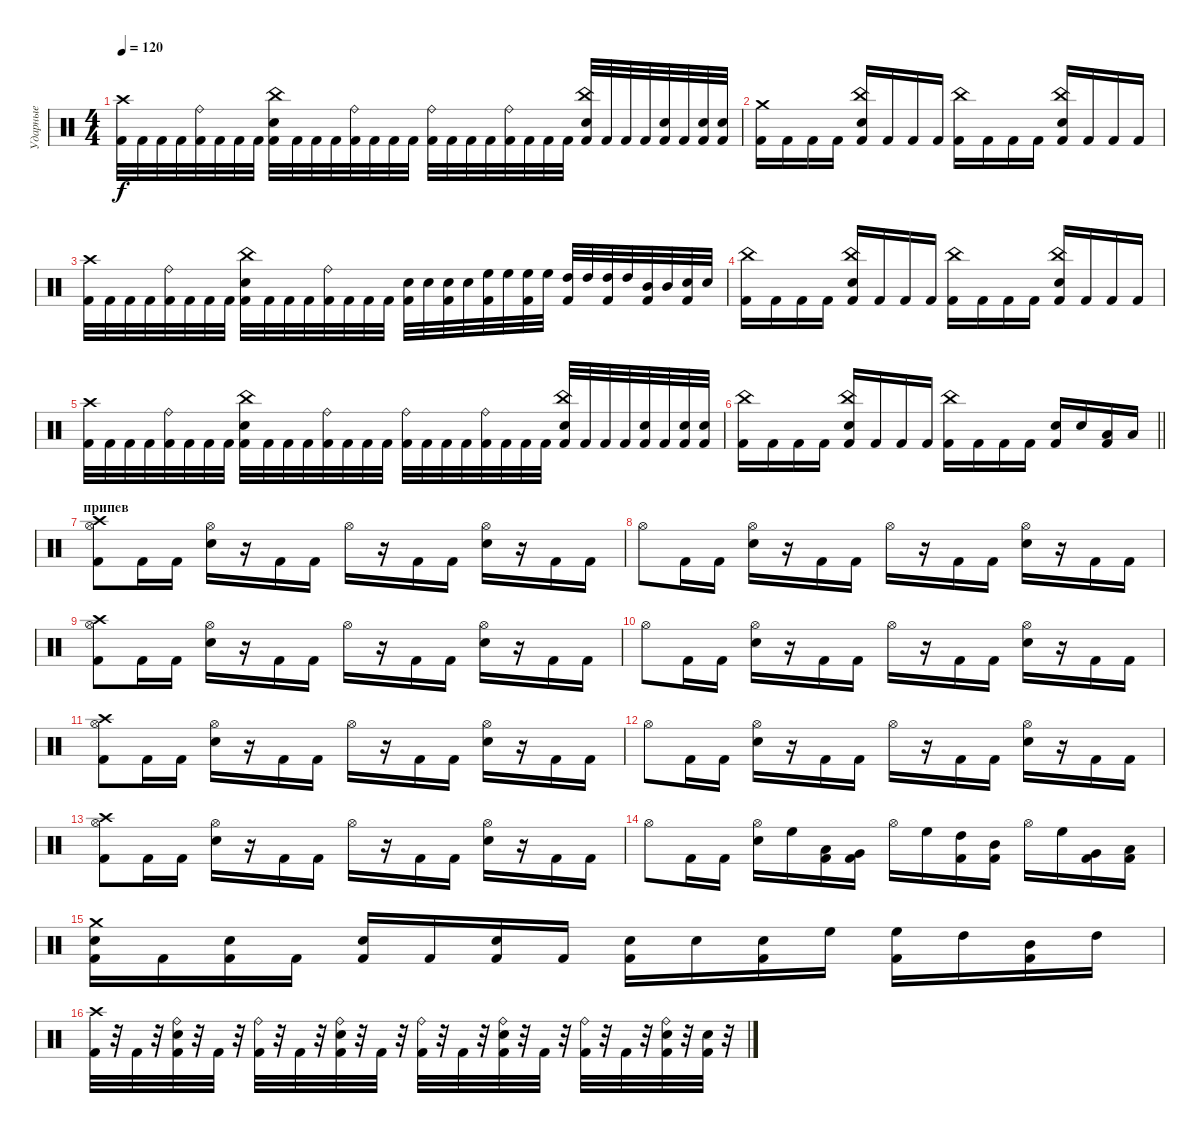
\track ("Ударные" "Ударные") {instrument percussion}
\staff {score}
\articulation defaults
\ts (4 4)
\tempo 120
\clef neutral
\ks c
("Crash high (hit)" "Kick (hit) 2").32{dy f} "Kick (hit) 2".32 "Kick (hit) 2".32 "Kick (hit) 2".32 ("Ride (bell)" "Kick (hit) 2").32 "Kick (hit) 2".32 "Kick (hit) 2".32 "Kick (hit) 2".32 ("China (hit)" "Snare (hit) 2" "Kick (hit) 2").32 "Kick (hit) 2".32 "Kick (hit) 2".32 "Kick (hit) 2".32 ("Ride (bell)" "Kick (hit) 2").32 "Kick (hit) 2".32 "Kick (hit) 2".32 "Kick (hit) 2".32 ("Ride (bell)" "Kick (hit) 2").32 "Kick (hit) 2".32 "Kick (hit) 2".32 "Kick (hit) 2".32 ("Ride (bell)" "Kick (hit) 2").32 "Kick (hit) 2".32 "Kick (hit) 2".32 "Kick (hit) 2".32 ("China (hit)" "Snare (hit) 2" "Kick (hit) 2").32 "Kick (hit) 2".32 "Kick (hit) 2".32 "Kick (hit) 2".32 ("Snare (hit) 2" "Kick (hit) 2").32 "Kick (hit) 2".32 ("Snare (hit) 2" "Kick (hit) 2").32 ("Snare (hit) 2" "Kick (hit) 2").32 |
("Crash medium (hit)" "Kick (hit) 2").16 "Kick (hit) 2".16 "Kick (hit) 2".16 "Kick (hit) 2".16 ("China (hit)" "Snare (hit) 2" "Kick (hit) 2").16 "Kick (hit) 2".16 "Kick (hit) 2".16 "Kick (hit) 2".16 ("China (hit)" "Kick (hit) 2").16 "Kick (hit) 2".16 "Kick (hit) 2".16 "Kick (hit) 2".16 ("China (hit)" "Snare (hit) 2" "Kick (hit) 2").16 "Kick (hit) 2".16 "Kick (hit) 2".16 "Kick (hit) 2".16 |
("Crash high (hit)" "Kick (hit) 2").32 "Kick (hit) 2".32 "Kick (hit) 2".32 "Kick (hit) 2".32 ("Ride (bell)" "Kick (hit) 2").32 "Kick (hit) 2".32 "Kick (hit) 2".32 "Kick (hit) 2".32 ("China (hit)" "Snare (hit) 2" "Kick (hit) 2").32 "Kick (hit) 2".32 "Kick (hit) 2".32 "Kick (hit) 2".32 ("Ride (bell)" "Kick (hit) 2").32 "Kick (hit) 2".32 "Kick (hit) 2".32 "Kick (hit) 2".32 ("Snare (hit) 2" "Kick (hit) 2").32 "Snare (hit) 2".32 ("Snare (hit) 2" "Kick (hit) 2").32 "Snare (hit) 2".32 ("High Floor Tom (hit)" "Kick (hit) 2").32 "High Floor Tom (hit)".32 ("High Floor Tom (hit)" "Kick (hit) 2").32 "High Floor Tom (hit)".32 ("High Tom (hit)" "Kick (hit) 2").32 "High Tom (hit)".32 ("High Tom (hit)" "Kick (hit) 2").32 "High Tom (hit)".32 ("Mid Tom (hit)" "Kick (hit) 2").32 "Mid Tom (hit)".32 ("Snare (hit) 2" "Kick (hit) 2").32 "Snare (hit) 2".32 |
("China (hit)" "Kick (hit) 2").16 "Kick (hit) 2".16 "Kick (hit) 2".16 "Kick (hit) 2".16 ("China (hit)" "Snare (hit) 2" "Kick (hit) 2").16 "Kick (hit) 2".16 "Kick (hit) 2".16 "Kick (hit) 2".16 ("China (hit)" "Kick (hit) 2").16 "Kick (hit) 2".16 "Kick (hit) 2".16 "Kick (hit) 2".16 ("China (hit)" "Snare (hit) 2" "Kick (hit) 2").16 "Kick (hit) 2".16 "Kick (hit) 2".16 "Kick (hit) 2".16 |
("Crash high (hit)" "Kick (hit) 2").32 "Kick (hit) 2".32 "Kick (hit) 2".32 "Kick (hit) 2".32 ("Ride (bell)" "Kick (hit) 2").32 "Kick (hit) 2".32 "Kick (hit) 2".32 "Kick (hit) 2".32 ("China (hit)" "Snare (hit) 2" "Kick (hit) 2").32 "Kick (hit) 2".32 "Kick (hit) 2".32 "Kick (hit) 2".32 ("Ride (bell)" "Kick (hit) 2").32 "Kick (hit) 2".32 "Kick (hit) 2".32 "Kick (hit) 2".32 ("Ride (bell)" "Kick (hit) 2").32 "Kick (hit) 2".32 "Kick (hit) 2".32 "Kick (hit) 2".32 ("Ride (bell)" "Kick (hit) 2").32 "Kick (hit) 2".32 "Kick (hit) 2".32 "Kick (hit) 2".32 ("China (hit)" "Snare (hit) 2" "Kick (hit) 2").32 "Kick (hit) 2".32 "Kick (hit) 2".32 "Kick (hit) 2".32 ("Snare (hit) 2" "Kick (hit) 2").32 "Kick (hit) 2".32 ("Snare (hit) 2" "Kick (hit) 2").32 ("Snare (hit) 2" "Kick (hit) 2").32 |
\barLineRight lightlight
("China (hit)" "Kick (hit) 2").16 "Kick (hit) 2".16 "Kick (hit) 2".16 "Kick (hit) 2".16 ("China (hit)" "Snare (hit) 2" "Kick (hit) 2").16 "Kick (hit) 2".16 "Kick (hit) 2".16 "Kick (hit) 2".16 ("China (hit)" "Kick (hit) 2").16 "Kick (hit) 2".16 "Kick (hit) 2".16 "Kick (hit) 2".16 ("Snare (hit) 2" "Kick (hit) 2").16 "Snare (hit) 2".16 ("Low Tom (hit)" "Kick (hit) 2").16 "Low Tom (hit)".16 |
\section ("" "припев")
("Crash high (hit)" "Hi-Hat (open)" "Kick (hit) 2").8 "Kick (hit) 2".16 "Kick (hit) 2".16 ("Hi-Hat (open)" "Snare (hit) 2").16 r.16 "Kick (hit) 2".16 "Kick (hit) 2".16 "Hi-Hat (open)".16 r.16 "Kick (hit) 2".16 "Kick (hit) 2".16 ("Hi-Hat (open)" "Snare (hit) 2").16 r.16 "Kick (hit) 2".16 "Kick (hit) 2".16 |
"Hi-Hat (open)".8 "Kick (hit) 2".16 "Kick (hit) 2".16 ("Hi-Hat (open)" "Snare (hit) 2").16 r.16 "Kick (hit) 2".16 "Kick (hit) 2".16 "Hi-Hat (open)".16 r.16 "Kick (hit) 2".16 "Kick (hit) 2".16 ("Hi-Hat (open)" "Snare (hit) 2").16 r.16 "Kick (hit) 2".16 "Kick (hit) 2".16 |
("Crash high (hit)" "Hi-Hat (open)" "Kick (hit) 2").8 "Kick (hit) 2".16 "Kick (hit) 2".16 ("Hi-Hat (open)" "Snare (hit) 2").16 r.16 "Kick (hit) 2".16 "Kick (hit) 2".16 "Hi-Hat (open)".16 r.16 "Kick (hit) 2".16 "Kick (hit) 2".16 ("Hi-Hat (open)" "Snare (hit) 2").16 r.16 "Kick (hit) 2".16 "Kick (hit) 2".16 |
"Hi-Hat (open)".8 "Kick (hit) 2".16 "Kick (hit) 2".16 ("Hi-Hat (open)" "Snare (hit) 2").16 r.16 "Kick (hit) 2".16 "Kick (hit) 2".16 "Hi-Hat (open)".16 r.16 "Kick (hit) 2".16 "Kick (hit) 2".16 ("Hi-Hat (open)" "Snare (hit) 2").16 r.16 "Kick (hit) 2".16 "Kick (hit) 2".16 |
("Crash high (hit)" "Hi-Hat (open)" "Kick (hit) 2").8 "Kick (hit) 2".16 "Kick (hit) 2".16 ("Hi-Hat (open)" "Snare (hit) 2").16 r.16 "Kick (hit) 2".16 "Kick (hit) 2".16 "Hi-Hat (open)".16 r.16 "Kick (hit) 2".16 "Kick (hit) 2".16 ("Hi-Hat (open)" "Snare (hit) 2").16 r.16 "Kick (hit) 2".16 "Kick (hit) 2".16 |
"Hi-Hat (open)".8 "Kick (hit) 2".16 "Kick (hit) 2".16 ("Hi-Hat (open)" "Snare (hit) 2").16 r.16 "Kick (hit) 2".16 "Kick (hit) 2".16 "Hi-Hat (open)".16 r.16 "Kick (hit) 2".16 "Kick (hit) 2".16 ("Hi-Hat (open)" "Snare (hit) 2").16 r.16 "Kick (hit) 2".16 "Kick (hit) 2".16 |
("Crash high (hit)" "Hi-Hat (open)" "Kick (hit) 2").8 "Kick (hit) 2".16 "Kick (hit) 2".16 ("Hi-Hat (open)" "Snare (hit) 2").16 r.16 "Kick (hit) 2".16 "Kick (hit) 2".16 "Hi-Hat (open)".16 r.16 "Kick (hit) 2".16 "Kick (hit) 2".16 ("Hi-Hat (open)" "Snare (hit) 2").16 r.16 "Kick (hit) 2".16 "Kick (hit) 2".16 |
"Hi-Hat (open)".8 "Kick (hit) 2".16 "Kick (hit) 2".16 ("Hi-Hat (open)" "Snare (hit) 2").16 "High Floor Tom (hit)".16 ("Low Tom (hit)" "Kick (hit) 2").16 ("Very Low Tom (hit)" "Kick (hit) 2").16 "Hi-Hat (open)".16 "High Floor Tom (hit)".16 ("High Tom (hit)" "Kick (hit) 2").16 ("Mid Tom (hit)" "Kick (hit) 2").16 "Hi-Hat (open)".16 "High Floor Tom (hit)".16 ("Very Low Tom (hit)" "Kick (hit) 2").16 ("Low Floor Tom (hit)" "Kick (hit) 2").16 |
("Crash medium (hit)" "Snare (hit) 2" "Kick (hit) 2").16 "Kick (hit) 2".16 ("Snare (hit) 2" "Kick (hit) 2").16 "Kick (hit) 2".16 ("Snare (hit) 2" "Kick (hit) 2").16 "Kick (hit) 2".16 ("Snare (hit) 2" "Kick (hit) 2").16 "Kick (hit) 2".16 ("Snare (hit) 2" "Kick (hit) 2").16 "Snare (hit) 2".16 ("Snare (hit) 2" "Kick (hit) 2").16 "High Floor Tom (hit)".16 ("High Floor Tom (hit)" "Kick (hit) 2").16 "High Tom (hit)".16 ("Mid Tom (hit)" "Kick (hit) 2").16 "High Tom (hit)".16 |
("Crash high (hit)" "Kick (hit) 2").32 r.32 "Kick (hit) 2".32 r.32 ("Ride (bell)" "Snare (hit) 2" "Kick (hit) 2").32 r.32 "Kick (hit) 2".32 r.32 ("Ride (bell)" "Kick (hit) 2").32 r.32 "Kick (hit) 2".32 r.32 ("Ride (bell)" "Snare (hit) 2" "Kick (hit) 2").32 r.32 "Kick (hit) 2".32 r.32 ("Ride (bell)" "Kick (hit) 2").32 r.32 "Kick (hit) 2".32 r.32 ("Ride (bell)" "Snare (hit) 2" "Kick (hit) 2").32 r.32 "Kick (hit) 2".32 r.32 ("Ride (bell)" "Kick (hit) 2").32 r.32 "Kick (hit) 2".32 r.32 ("Ride (bell)" "Snare (hit) 2" "Kick (hit) 2").32 r.32 ("Snare (hit) 2" "Kick (hit) 2").32 r.32
